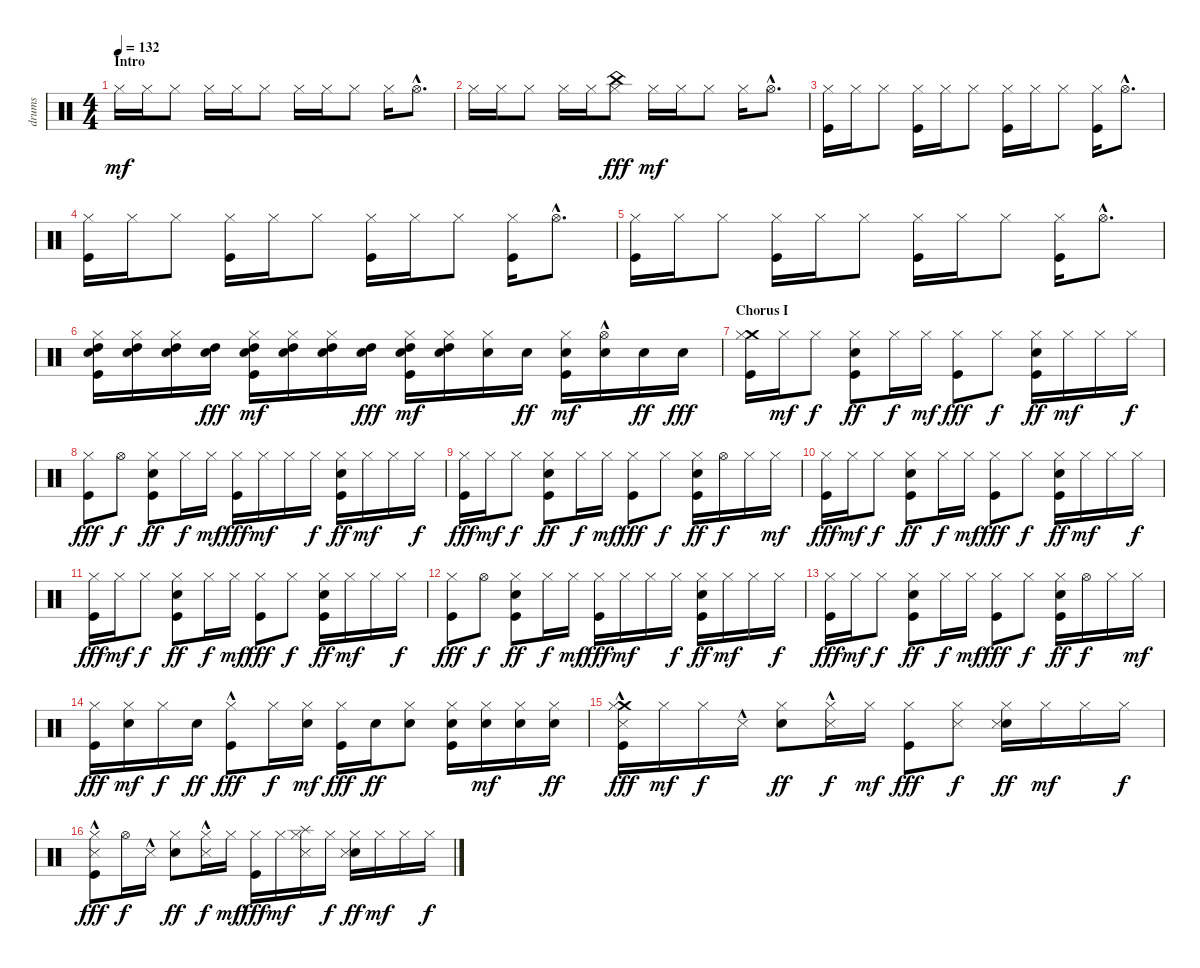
\track ("drums" "drums") {instrument percussion}
\staff {score}
\articulation defaults
\ts (4 4)
\section ("" "Intro")
\tempo 132
\clef neutral
\ks c "Hi-Hat (closed)".16{dy mf} "Hi-Hat (closed)".16 "Hi-Hat (closed)".8 "Hi-Hat (closed)".16 "Hi-Hat (closed)".16 "Hi-Hat (closed)".8 "Hi-Hat (closed)".16 "Hi-Hat (closed)".16 "Hi-Hat (closed)".8 "Hi-Hat (closed)".16 "Hi-Hat (open)"{hac}.8{d}
|
"Hi-Hat (closed)".16 "Hi-Hat (closed)".16 "Hi-Hat (closed)".8 "Hi-Hat (closed)".16 "Hi-Hat (closed)".16 ("Hi-Hat (closed)" "China (hit)").8{dy fff} "Hi-Hat (closed)".16{dy mf} "Hi-Hat (closed)".16 "Hi-Hat (closed)".8 "Hi-Hat (closed)".16 "Hi-Hat (open)"{hac}.8{d} |
("Kick (hit)" "Hi-Hat (closed)").16 "Hi-Hat (closed)".16 "Hi-Hat (closed)".8 ("Kick (hit)" "Hi-Hat (closed)").16 "Hi-Hat (closed)".16 "Hi-Hat (closed)".8 ("Kick (hit)" "Hi-Hat (closed)").16 "Hi-Hat (closed)".16 "Hi-Hat (closed)".8 ("Kick (hit)" "Hi-Hat (closed)").16 "Hi-Hat (open)"{hac}.8{d} |
("Kick (hit)" "Hi-Hat (closed)").16 "Hi-Hat (closed)".16 "Hi-Hat (closed)".8 ("Kick (hit)" "Hi-Hat (closed)").16 "Hi-Hat (closed)".16 "Hi-Hat (closed)".8 ("Kick (hit)" "Hi-Hat (closed)").16 "Hi-Hat (closed)".16 "Hi-Hat (closed)".8 ("Kick (hit)" "Hi-Hat (closed)").16 "Hi-Hat (open)"{hac}.8{d} |
("Kick (hit)" "Hi-Hat (closed)").16 "Hi-Hat (closed)".16 "Hi-Hat (closed)".8 ("Kick (hit)" "Hi-Hat (closed)").16 "Hi-Hat (closed)".16 "Hi-Hat (closed)".8 ("Kick (hit)" "Hi-Hat (closed)").16 "Hi-Hat (closed)".16 "Hi-Hat (closed)".8 ("Kick (hit)" "Hi-Hat (closed)").16 "Hi-Hat (open)"{hac}.8{d} |
("Kick (hit)" "High Tom (hit)" "Electric Snare (hit)" "Hi-Hat (closed)").16 ("High Tom (hit)" "Electric Snare (hit)" "Hi-Hat (closed)").16 ("High Tom (hit)" "Electric Snare (hit)" "Hi-Hat (closed)").16 ("High Tom (hit)" "Electric Snare (hit)").16{dy fff} ("Kick (hit)" "High Tom (hit)" "Electric Snare (hit)" "Hi-Hat (closed)").16{dy mf} ("High Tom (hit)" "Electric Snare (hit)" "Hi-Hat (closed)").16 ("High Tom (hit)" "Electric Snare (hit)" "Hi-Hat (closed)").16 ("High Tom (hit)" "Electric Snare (hit)").16{dy fff} ("Kick (hit)" "High Tom (hit)" "Electric Snare (hit)" "Hi-Hat (closed)").16{dy mf} ("High Tom (hit)" "Electric Snare (hit)" "Hi-Hat (closed)").16 ("Electric Snare (hit)" "Hi-Hat (closed)").16 "Electric Snare (hit)".16{dy ff} ("Kick (hit)" "Electric Snare (hit)" "Hi-Hat (closed)").16{dy mf} ("Electric Snare (hit)" "Hi-Hat (open)"{hac}).16 "Electric Snare (hit)".16{dy ff} "Electric Snare (hit)".16{dy fff} |
\section ("" "Chorus I")
("Kick (hit)" "Crash medium (hit)" "Hi-Hat (closed)").16 "Hi-Hat (closed)".16{dy mf} "Hi-Hat (closed)".8{dy f} ("Kick (hit)" "Electric Snare (hit)" "Hi-Hat (closed)").8{dy ff} "Hi-Hat (closed)".16{dy f} "Hi-Hat (closed)".16{dy mf} ("Kick (hit)" "Hi-Hat (closed)").8{dy fff} "Hi-Hat (closed)".8{dy f} ("Kick (hit)" "Electric Snare (hit)" "Hi-Hat (closed)").16{dy ff} "Hi-Hat (closed)".16{dy mf} "Hi-Hat (closed)".16 "Hi-Hat (closed)".16{dy f} |
("Kick (hit)" "Hi-Hat (closed)").8{dy fff} "Hi-Hat (open)".8{dy f} ("Kick (hit)" "Electric Snare (hit)" "Hi-Hat (closed)").8{dy ff} "Hi-Hat (closed)".16{dy f} "Hi-Hat (closed)".16{dy mf} ("Kick (hit)" "Hi-Hat (closed)").16{dy fff} "Hi-Hat (closed)".16{dy mf} "Hi-Hat (closed)".16 "Hi-Hat (closed)".16{dy f} ("Kick (hit)" "Electric Snare (hit)" "Hi-Hat (closed)").16{dy ff} "Hi-Hat (closed)".16{dy mf} "Hi-Hat (closed)".16 "Hi-Hat (closed)".16{dy f} |
("Kick (hit)" "Hi-Hat (closed)").16{dy fff} "Hi-Hat (closed)".16{dy mf} "Hi-Hat (closed)".8{dy f} ("Kick (hit)" "Electric Snare (hit)" "Hi-Hat (closed)").8{dy ff} "Hi-Hat (closed)".16{dy f} "Hi-Hat (closed)".16{dy mf} ("Kick (hit)" "Hi-Hat (closed)").8{dy fff} "Hi-Hat (closed)".8{dy f} ("Kick (hit)" "Electric Snare (hit)" "Hi-Hat (closed)").16{dy ff} "Hi-Hat (open)".16{dy f} "Hi-Hat (closed)".16 "Hi-Hat (closed)".16{dy mf} |
("Kick (hit)" "Hi-Hat (closed)").16{dy fff} "Hi-Hat (closed)".16{dy mf} "Hi-Hat (closed)".8{dy f} ("Kick (hit)" "Electric Snare (hit)" "Hi-Hat (closed)").8{dy ff} "Hi-Hat (closed)".16{dy f} "Hi-Hat (closed)".16{dy mf} ("Kick (hit)" "Hi-Hat (closed)").8{dy fff} "Hi-Hat (closed)".8{dy f} ("Kick (hit)" "Electric Snare (hit)" "Hi-Hat (closed)").16{dy ff} "Hi-Hat (closed)".16{dy mf} "Hi-Hat (closed)".16 "Hi-Hat (closed)".16{dy f} |
("Kick (hit)" "Hi-Hat (closed)").16{dy fff} "Hi-Hat (closed)".16{dy mf} "Hi-Hat (closed)".8{dy f} ("Kick (hit)" "Electric Snare (hit)" "Hi-Hat (closed)").8{dy ff} "Hi-Hat (closed)".16{dy f} "Hi-Hat (closed)".16{dy mf} ("Kick (hit)" "Hi-Hat (closed)").8{dy fff} "Hi-Hat (closed)".8{dy f} ("Kick (hit)" "Electric Snare (hit)" "Hi-Hat (closed)").16{dy ff} "Hi-Hat (closed)".16{dy mf} "Hi-Hat (closed)".16 "Hi-Hat (closed)".16{dy f} |
("Kick (hit)" "Hi-Hat (closed)").8{dy fff} "Hi-Hat (open)".8{dy f} ("Kick (hit)" "Electric Snare (hit)" "Hi-Hat (closed)").8{dy ff} "Hi-Hat (closed)".16{dy f} "Hi-Hat (closed)".16{dy mf} ("Kick (hit)" "Hi-Hat (closed)").16{dy fff} "Hi-Hat (closed)".16{dy mf} "Hi-Hat (closed)".16 "Hi-Hat (closed)".16{dy f} ("Kick (hit)" "Electric Snare (hit)" "Hi-Hat (closed)").16{dy ff} "Hi-Hat (closed)".16{dy mf} "Hi-Hat (closed)".16 "Hi-Hat (closed)".16{dy f} |
("Kick (hit)" "Hi-Hat (closed)").16{dy fff} "Hi-Hat (closed)".16{dy mf} "Hi-Hat (closed)".8{dy f} ("Kick (hit)" "Electric Snare (hit)" "Hi-Hat (closed)").8{dy ff} "Hi-Hat (closed)".16{dy f} "Hi-Hat (closed)".16{dy mf} ("Kick (hit)" "Hi-Hat (closed)").8{dy fff} "Hi-Hat (closed)".8{dy f} ("Kick (hit)" "Electric Snare (hit)" "Hi-Hat (closed)").16{dy ff} "Hi-Hat (open)".16{dy f} "Hi-Hat (closed)".16 "Hi-Hat (closed)".16{dy mf} |
("Kick (hit)" "Hi-Hat (closed)").16{dy fff} ("Electric Snare (hit)" "Hi-Hat (closed)").16{dy mf} "Hi-Hat (closed)".16{dy f} "Electric Snare (hit)".16{dy ff} ("Kick (hit)"{hac} "Hi-Hat (closed)").8{dy fff} "Hi-Hat (closed)".16{dy f} ("Electric Snare (hit)" "Hi-Hat (closed)").16{dy mf} ("Kick (hit)" "Hi-Hat (closed)").16{dy fff} "Electric Snare (hit)".16{dy ff} ("Electric Snare (hit)" "Hi-Hat (closed)").8 ("Kick (hit)" "Electric Snare (hit)" "Hi-Hat (closed)").16 ("Electric Snare (hit)" "Hi-Hat (closed)").16{dy mf} ("Electric Snare (hit)" "Hi-Hat (closed)").16 ("Electric Snare (hit)" "Hi-Hat (closed)").16{dy ff} |
("Kick (hit)" "Crash medium (hit)" "Hi-Hat (closed)" "Snare (side stick) 3"{hac}).16{dy fff} "Hi-Hat (closed)".16{dy mf} "Hi-Hat (closed)".16{dy f} "Snare (side stick) 3"{hac}.16 ("Electric Snare (hit)" "Hi-Hat (closed)").8{dy ff} ("Hi-Hat (closed)" "Snare (side stick) 3"{hac}).16{dy f} "Hi-Hat (closed)".16{dy mf} ("Kick (hit)" "Hi-Hat (closed)").8{dy fff} ("Hi-Hat (closed)" "Snare (side stick) 3").8{dy f} ("Electric Snare (hit)" "Hi-Hat (closed)" "Snare (side stick) 3").16{dy ff} "Hi-Hat (closed)".16{dy mf} "Hi-Hat (closed)".16 "Hi-Hat (closed)".16{dy f} |
("Kick (hit)" "Hi-Hat (closed)" "Snare (side stick) 3"{hac}).8{dy fff} "Hi-Hat (open)".16{dy f} "Snare (side stick) 3"{hac}.16 ("Electric Snare (hit)" "Hi-Hat (closed)").8{dy ff} ("Hi-Hat (closed)" "Snare (side stick) 3"{hac}).16{dy f} "Hi-Hat (closed)".16{dy mf} ("Kick (hit)" "Hi-Hat (closed)").16{dy fff} "Hi-Hat (closed)".16{dy mf} ("Splash (hit)" "Hi-Hat (closed)" "Snare (side stick) 3").16 "Hi-Hat (closed)".16{dy f} ("Electric Snare (hit)" "Hi-Hat (closed)" "Snare (side stick) 3").16{dy ff} "Hi-Hat (closed)".16{dy mf} "Hi-Hat (closed)".16 "Hi-Hat (closed)".16{dy f}
